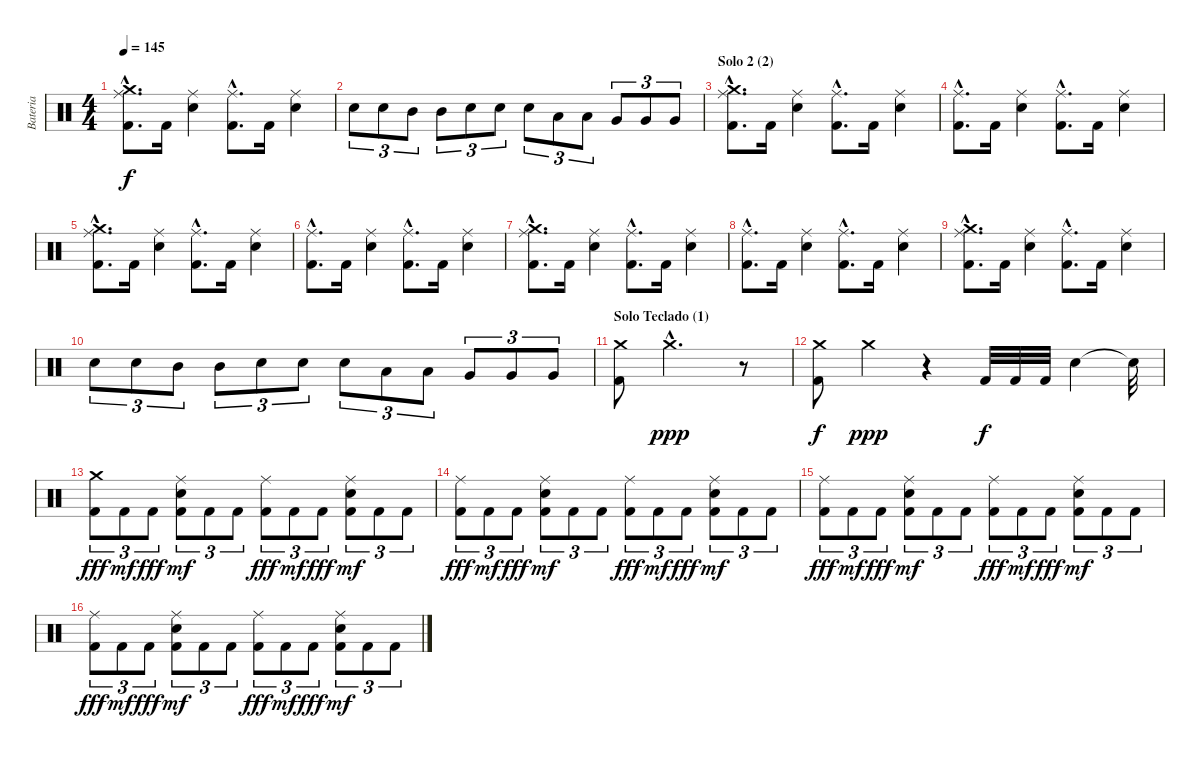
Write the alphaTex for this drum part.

\track ("Bateria" "Bateria") {instrument percussion}
\staff {score}
\articulation defaults
\ts (4 4)
\tempo 145
\clef neutral
\ks c
("Ride (middle)"{hac} "Crash medium (hit)"{hac} "Kick (hit) 2"{hac}).8{d dy f} "Kick (hit) 2".16 ("Ride (middle)" "Snare (hit) 2").4 ("Ride (middle)"{hac} "Kick (hit) 2"{hac}).8{d} "Kick (hit) 2".16 ("Ride (middle)" "Snare (hit) 2").4 |
"Snare (hit) 2".8{tu (3 2)} "Snare (hit) 2".8{tu (3 2)} "Mid Tom (hit)".8{tu (3 2)} "Mid Tom (hit)".8{tu (3 2)} "Snare (hit) 2".8{tu (3 2)} "Snare (hit) 2".8{tu (3 2)} "Snare (hit) 2".8{tu (3 2)} "Low Tom (hit)".8{tu (3 2)} "Low Tom (hit)".8{tu (3 2)} "Very Low Tom (hit)".8{tu (3 2)} "Very Low Tom (hit)".8{tu (3 2)} "Very Low Tom (hit)".8{tu (3 2)} |
\section ("" "Solo 2 (2)")
("Ride (middle)"{hac} "Crash medium (hit)"{hac} "Kick (hit) 2"{hac}).8{d} "Kick (hit) 2".16 ("Ride (middle)" "Snare (hit) 2").4 ("Ride (middle)"{hac} "Kick (hit) 2"{hac}).8{d} "Kick (hit) 2".16 ("Ride (middle)" "Snare (hit) 2").4 |
("Ride (middle)"{hac} "Kick (hit) 2"{hac}).8{d} "Kick (hit) 2".16 ("Ride (middle)" "Snare (hit) 2").4 ("Ride (middle)"{hac} "Kick (hit) 2"{hac}).8{d} "Kick (hit) 2".16 ("Ride (middle)" "Snare (hit) 2").4 |
("Ride (middle)"{hac} "Crash medium (hit)"{hac} "Kick (hit) 2"{hac}).8{d} "Kick (hit) 2".16 ("Ride (middle)" "Snare (hit) 2").4 ("Ride (middle)"{hac} "Kick (hit) 2"{hac}).8{d} "Kick (hit) 2".16 ("Ride (middle)" "Snare (hit) 2").4 |
("Ride (middle)"{hac} "Kick (hit) 2"{hac}).8{d} "Kick (hit) 2".16 ("Ride (middle)" "Snare (hit) 2").4 ("Ride (middle)"{hac} "Kick (hit) 2"{hac}).8{d} "Kick (hit) 2".16 ("Ride (middle)" "Snare (hit) 2").4 |
("Ride (middle)"{hac} "Crash medium (hit)"{hac} "Kick (hit) 2"{hac}).8{d} "Kick (hit) 2".16 ("Ride (middle)" "Snare (hit) 2").4 ("Ride (middle)"{hac} "Kick (hit) 2"{hac}).8{d} "Kick (hit) 2".16 ("Ride (middle)" "Snare (hit) 2").4 |
("Ride (middle)"{hac} "Kick (hit) 2"{hac}).8{d} "Kick (hit) 2".16 ("Ride (middle)" "Snare (hit) 2").4 ("Ride (middle)"{hac} "Kick (hit) 2"{hac}).8{d} "Kick (hit) 2".16 ("Ride (middle)" "Snare (hit) 2").4 |
("Ride (middle)"{hac} "Crash medium (hit)"{hac} "Kick (hit) 2"{hac}).8{d} "Kick (hit) 2".16 ("Ride (middle)" "Snare (hit) 2").4 ("Ride (middle)"{hac} "Kick (hit) 2"{hac}).8{d} "Kick (hit) 2".16 ("Ride (middle)" "Snare (hit) 2").4 |
"Snare (hit) 2".8{tu (3 2)} "Snare (hit) 2".8{tu (3 2)} "Mid Tom (hit)".8{tu (3 2)} "Mid Tom (hit)".8{tu (3 2)} "Snare (hit) 2".8{tu (3 2)} "Snare (hit) 2".8{tu (3 2)} "Snare (hit) 2".8{tu (3 2)} "Low Tom (hit)".8{tu (3 2)} "Low Tom (hit)".8{tu (3 2)} "Very Low Tom (hit)".8{tu (3 2)} "Very Low Tom (hit)".8{tu (3 2)} "Very Low Tom (hit)".8{tu (3 2)} |
\section ("" "Solo Teclado (1)")
("Crash medium (hit)" "Kick (hit) 2").8 "Crash medium (hit)"{hac}.2{d dy ppp} r.8 |
("Crash medium (hit)" "Kick (hit) 2").8{dy f} "Crash medium (hit)".4{dy ppp} r.4 "Kick (hit) 2".32{dy f} "Kick (hit) 2".32 "Kick (hit) 2".32 "Snare (hit) 2".4 "Snare (hit)"{t}.32 |
("Kick (hit) 2" "Crash medium (hit)").8{tu (3 2) dy fff} "Kick (hit) 2".8{tu (3 2) dy mf} "Kick (hit) 2".8{tu (3 2) dy fff} ("Kick (hit) 2" "Snare (hit) 2" "Ride (middle)").8{tu (3 2) dy mf} "Kick (hit) 2".8{tu (3 2)} "Kick (hit) 2".8{tu (3 2)} ("Kick (hit) 2" "Ride (middle)").8{tu (3 2) dy fff} "Kick (hit) 2".8{tu (3 2) dy mf} "Kick (hit) 2".8{tu (3 2) dy fff} ("Kick (hit) 2" "Snare (hit) 2" "Ride (middle)").8{tu (3 2) dy mf} "Kick (hit) 2".8{tu (3 2)} "Kick (hit) 2".8{tu (3 2)} |
("Kick (hit) 2" "Ride (middle)").8{tu (3 2) dy fff} "Kick (hit) 2".8{tu (3 2) dy mf} "Kick (hit) 2".8{tu (3 2) dy fff} ("Kick (hit) 2" "Snare (hit) 2" "Ride (middle)").8{tu (3 2) dy mf} "Kick (hit) 2".8{tu (3 2)} "Kick (hit) 2".8{tu (3 2)} ("Kick (hit) 2" "Ride (middle)").8{tu (3 2) dy fff} "Kick (hit) 2".8{tu (3 2) dy mf} "Kick (hit) 2".8{tu (3 2) dy fff} ("Kick (hit) 2" "Snare (hit) 2" "Ride (middle)").8{tu (3 2) dy mf} "Kick (hit) 2".8{tu (3 2)} "Kick (hit) 2".8{tu (3 2)} |
("Kick (hit) 2" "Ride (middle)").8{tu (3 2) dy fff} "Kick (hit) 2".8{tu (3 2) dy mf} "Kick (hit) 2".8{tu (3 2) dy fff} ("Kick (hit) 2" "Snare (hit) 2" "Ride (middle)").8{tu (3 2) dy mf} "Kick (hit) 2".8{tu (3 2)} "Kick (hit) 2".8{tu (3 2)} ("Kick (hit) 2" "Ride (middle)").8{tu (3 2) dy fff} "Kick (hit) 2".8{tu (3 2) dy mf} "Kick (hit) 2".8{tu (3 2) dy fff} ("Kick (hit) 2" "Snare (hit) 2" "Ride (middle)").8{tu (3 2) dy mf} "Kick (hit) 2".8{tu (3 2)} "Kick (hit) 2".8{tu (3 2)} |
("Kick (hit) 2" "Ride (middle)").8{tu (3 2) dy fff} "Kick (hit) 2".8{tu (3 2) dy mf} "Kick (hit) 2".8{tu (3 2) dy fff} ("Kick (hit) 2" "Snare (hit) 2" "Ride (middle)").8{tu (3 2) dy mf} "Kick (hit) 2".8{tu (3 2)} "Kick (hit) 2".8{tu (3 2)} ("Kick (hit) 2" "Ride (middle)").8{tu (3 2) dy fff} "Kick (hit) 2".8{tu (3 2) dy mf} "Kick (hit) 2".8{tu (3 2) dy fff} ("Kick (hit) 2" "Snare (hit) 2" "Ride (middle)").8{tu (3 2) dy mf} "Kick (hit) 2".8{tu (3 2)} "Kick (hit) 2".8{tu (3 2)}
